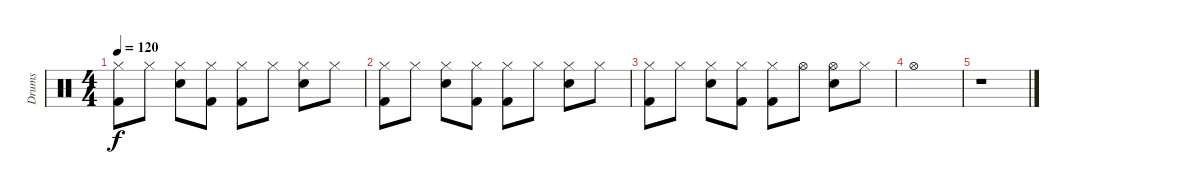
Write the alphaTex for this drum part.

\track ("Drums" "Drums") {instrument percussion}
\staff {score}
\articulation defaults
\ts (4 4)
\tempo 120
\clef neutral
\ks c
("Hi-Hat (closed)" "Kick (hit) 2").8{dy f} "Hi-Hat (closed)".8 ("Hi-Hat (closed)" "Snare (hit) 2").8 ("Hi-Hat (closed)" "Kick (hit) 2").8 ("Hi-Hat (closed)" "Kick (hit) 2").8 "Hi-Hat (closed)".8 ("Hi-Hat (closed)" "Snare (hit) 2").8 "Hi-Hat (closed)".8 |
("Hi-Hat (closed)" "Kick (hit) 2").8 "Hi-Hat (closed)".8 ("Hi-Hat (closed)" "Snare (hit) 2").8 ("Hi-Hat (closed)" "Kick (hit) 2").8 ("Hi-Hat (closed)" "Kick (hit) 2").8 "Hi-Hat (closed)".8 ("Hi-Hat (closed)" "Snare (hit) 2").8 "Hi-Hat (closed)".8 |
("Hi-Hat (closed)" "Kick (hit) 2").8 "Hi-Hat (closed)".8 ("Hi-Hat (closed)" "Snare (hit) 2").8 ("Hi-Hat (closed)" "Kick (hit) 2").8 ("Hi-Hat (closed)" "Kick (hit) 2").8 "Hi-Hat (open)".8 ("Hi-Hat (open)" "Snare (hit) 2").8 "Hi-Hat (closed)".8 |
"Hi-Hat (open)".1 |
r.1
